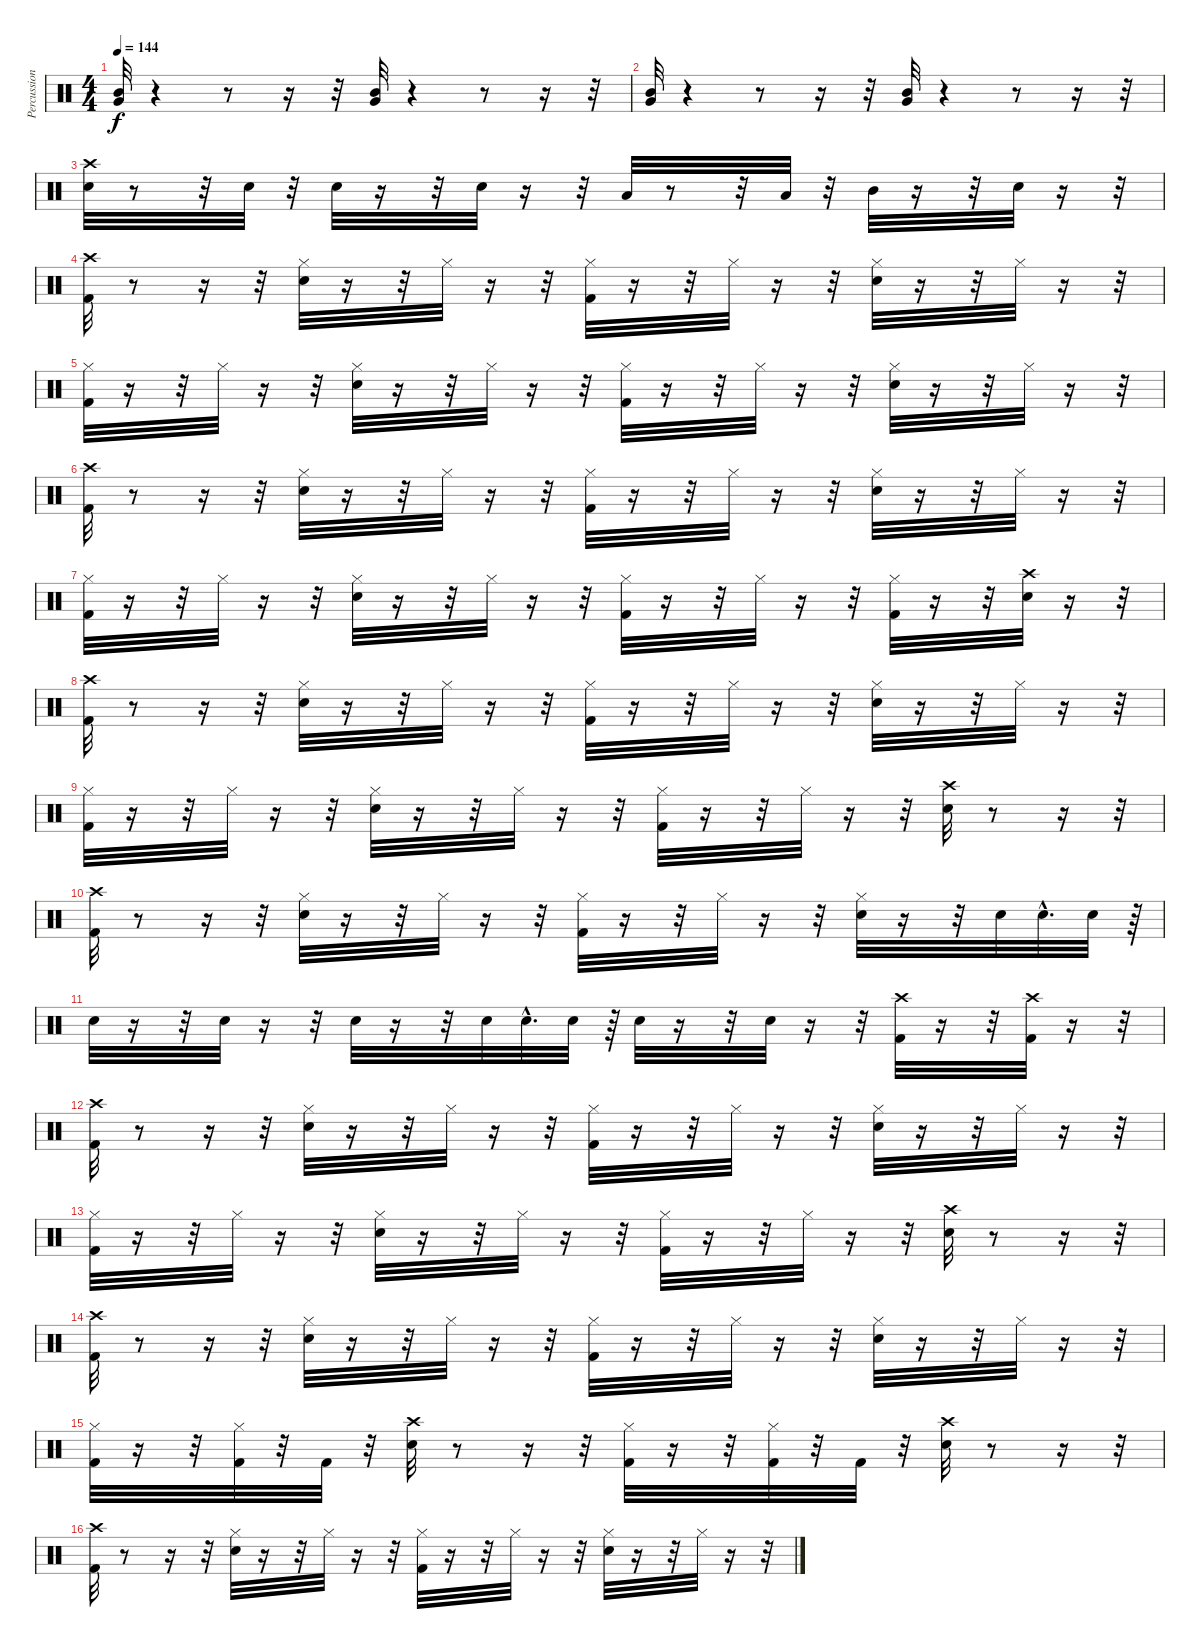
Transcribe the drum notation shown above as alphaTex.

\track ("Percussion" "Percussion") {instrument percussion}
\staff {score}
\articulation defaults
\ts (4 4)
\tempo 144
\clef neutral
\ks c
("Very Low Tom (hit)" "Mid Tom (hit)").32{dy f} r.4 r.8 r.16 r.32 ("Very Low Tom (hit)" "Mid Tom (hit)").32 r.4 r.8 r.16 r.32 |
("Very Low Tom (hit)" "Mid Tom (hit)").32 r.4 r.8 r.16 r.32 ("Very Low Tom (hit)" "Mid Tom (hit)").32 r.4 r.8 r.16 r.32 |
("Snare (hit) 2" "Crash high (hit)").32 r.8 r.32 "Snare (hit) 2".32 r.32 "Snare (hit) 2".32 r.16 r.32 "Snare (hit) 2".32 r.16 r.32 "Low Tom (hit)".32 r.8 r.32 "Low Tom (hit)".32 r.32 "Mid Tom (hit)".32 r.16 r.32 "Snare (hit) 2".32 r.16 r.32 |
("Kick (hit) 2" "Crash high (hit)").32 r.8 r.16 r.32 ("Hi-Hat (closed)" "Snare (hit) 2").32 r.16 r.32 "Hi-Hat (closed)".32 r.16 r.32 ("Hi-Hat (closed)" "Kick (hit) 2").32 r.16 r.32 "Hi-Hat (closed)".32 r.16 r.32 ("Snare (hit) 2" "Hi-Hat (closed)").32 r.16 r.32 "Hi-Hat (closed)".32 r.16 r.32 |
("Hi-Hat (closed)" "Kick (hit) 2").32 r.16 r.32 "Hi-Hat (closed)".32 r.16 r.32 ("Snare (hit) 2" "Hi-Hat (closed)").32 r.16 r.32 "Hi-Hat (closed)".32 r.16 r.32 ("Hi-Hat (closed)" "Kick (hit) 2").32 r.16 r.32 "Hi-Hat (closed)".32 r.16 r.32 ("Snare (hit) 2" "Hi-Hat (closed)").32 r.16 r.32 "Hi-Hat (closed)".32 r.16 r.32 |
("Kick (hit) 2" "Crash high (hit)").32 r.8 r.16 r.32 ("Hi-Hat (closed)" "Snare (hit) 2").32 r.16 r.32 "Hi-Hat (closed)".32 r.16 r.32 ("Hi-Hat (closed)" "Kick (hit) 2").32 r.16 r.32 "Hi-Hat (closed)".32 r.16 r.32 ("Snare (hit) 2" "Hi-Hat (closed)").32 r.16 r.32 "Hi-Hat (closed)".32 r.16 r.32 |
("Kick (hit) 2" "Hi-Hat (closed)").32 r.16 r.32 "Hi-Hat (closed)".32 r.16 r.32 ("Snare (hit) 2" "Hi-Hat (closed)").32 r.16 r.32 "Hi-Hat (closed)".32 r.16 r.32 ("Hi-Hat (closed)" "Kick (hit) 2").32 r.16 r.32 "Hi-Hat (closed)".32 r.16 r.32 ("Hi-Hat (closed)" "Kick (hit) 2").32 r.16 r.32 ("Crash high (hit)" "Snare (hit) 2").32 r.16 r.32 |
("Kick (hit) 2" "Crash high (hit)").32 r.8 r.16 r.32 ("Hi-Hat (closed)" "Snare (hit) 2").32 r.16 r.32 "Hi-Hat (closed)".32 r.16 r.32 ("Hi-Hat (closed)" "Kick (hit) 2").32 r.16 r.32 "Hi-Hat (closed)".32 r.16 r.32 ("Snare (hit) 2" "Hi-Hat (closed)").32 r.16 r.32 "Hi-Hat (closed)".32 r.16 r.32 |
("Kick (hit) 2" "Hi-Hat (closed)").32 r.16 r.32 "Hi-Hat (closed)".32 r.16 r.32 ("Snare (hit) 2" "Hi-Hat (closed)").32 r.16 r.32 "Hi-Hat (closed)".32 r.16 r.32 ("Hi-Hat (closed)" "Kick (hit) 2").32 r.16 r.32 "Hi-Hat (closed)".32 r.16 r.32 ("Crash high (hit)" "Snare (hit) 2").32 r.8 r.16 r.32 |
("Crash high (hit)" "Kick (hit) 2").32 r.8 r.16 r.32 ("Snare (hit) 2" "Hi-Hat (closed)").32 r.16 r.32 "Hi-Hat (closed)".32 r.16 r.32 ("Hi-Hat (closed)" "Kick (hit) 2").32 r.16 r.32 "Hi-Hat (closed)".32 r.16 r.32 ("Snare (hit) 2" "Hi-Hat (closed)").32 r.16 r.32 "Snare (hit) 2".32 "Snare (hit) 2"{hac}.32{d} "Snare (hit) 2".32 r.64 |
"Snare (hit) 2".32 r.16 r.32 "Snare (hit) 2".32 r.16 r.32 "Snare (hit) 2".32 r.16 r.32 "Snare (hit) 2".32 "Snare (hit) 2"{hac}.32{d} "Snare (hit) 2".32 r.64 "Snare (hit) 2".32 r.16 r.32 "Snare (hit) 2".32 r.16 r.32 ("Kick (hit) 2" "Crash high (hit)").32 r.16 r.32 ("Kick (hit) 2" "Crash high (hit)").32 r.16 r.32 |
("Kick (hit) 2" "Crash high (hit)").32 r.8 r.16 r.32 ("Hi-Hat (closed)" "Snare (hit) 2").32 r.16 r.32 "Hi-Hat (closed)".32 r.16 r.32 ("Hi-Hat (closed)" "Kick (hit) 2").32 r.16 r.32 "Hi-Hat (closed)".32 r.16 r.32 ("Snare (hit) 2" "Hi-Hat (closed)").32 r.16 r.32 "Hi-Hat (closed)".32 r.16 r.32 |
("Kick (hit) 2" "Hi-Hat (closed)").32 r.16 r.32 "Hi-Hat (closed)".32 r.16 r.32 ("Snare (hit) 2" "Hi-Hat (closed)").32 r.16 r.32 "Hi-Hat (closed)".32 r.16 r.32 ("Hi-Hat (closed)" "Kick (hit) 2").32 r.16 r.32 "Hi-Hat (closed)".32 r.16 r.32 ("Crash high (hit)" "Snare (hit) 2").32 r.8 r.16 r.32 |
("Kick (hit) 2" "Crash high (hit)").32 r.8 r.16 r.32 ("Hi-Hat (closed)" "Snare (hit) 2").32 r.16 r.32 "Hi-Hat (closed)".32 r.16 r.32 ("Hi-Hat (closed)" "Kick (hit) 2").32 r.16 r.32 "Hi-Hat (closed)".32 r.16 r.32 ("Snare (hit) 2" "Hi-Hat (closed)").32 r.16 r.32 "Hi-Hat (closed)".32 r.16 r.32 |
("Kick (hit) 2" "Hi-Hat (closed)").32 r.16 r.32 ("Kick (hit) 2" "Hi-Hat (closed)").32 r.32 "Kick (hit) 2".32 r.32 ("Crash high (hit)" "Snare (hit) 2").32 r.8 r.16 r.32 ("Kick (hit) 2" "Hi-Hat (closed)").32 r.16 r.32 ("Kick (hit) 2" "Hi-Hat (closed)").32 r.32 "Kick (hit) 2".32 r.32 ("Crash high (hit)" "Snare (hit) 2").32 r.8 r.16 r.32 |
("Kick (hit) 2" "Crash high (hit)").32 r.8 r.16 r.32 ("Hi-Hat (closed)" "Snare (hit) 2").32 r.16 r.32 "Hi-Hat (closed)".32 r.16 r.32 ("Hi-Hat (closed)" "Kick (hit) 2").32 r.16 r.32 "Hi-Hat (closed)".32 r.16 r.32 ("Snare (hit) 2" "Hi-Hat (closed)").32 r.16 r.32 "Hi-Hat (closed)".32 r.16 r.32
